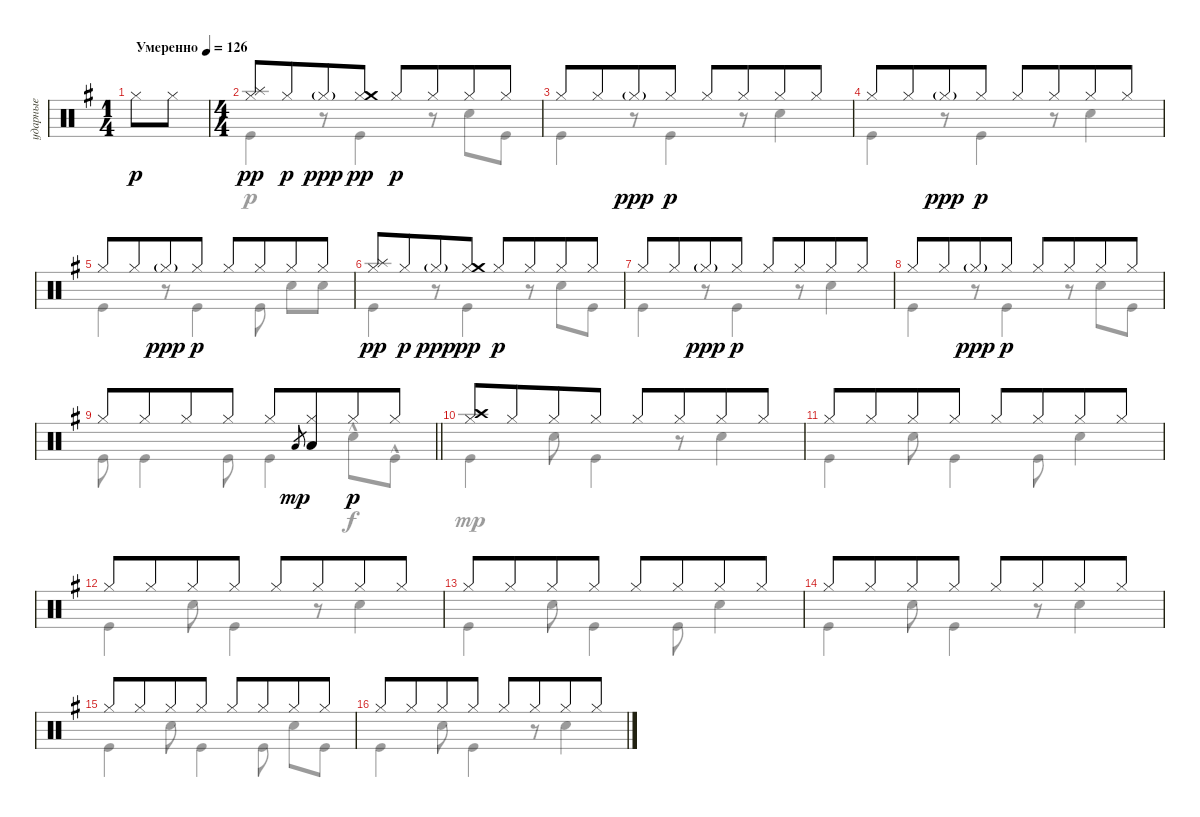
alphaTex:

\track ("ударные" "ударные") {instrument percussion}
\staff {score}
\articulation defaults
\voice
\ts (1 4)
\section ("" "")
\tempo (126 "Умеренно")
\clef neutral
\ks eminor "Hi-Hat (closed)".8{dy p} "Hi-Hat (closed)".8
|
\ts (4 4)
("Hi-Hat (closed)" "Splash (hit)").8{dy pp} "Hi-Hat (closed)".8{dy p beam merge} "Hi-Hat (closed)"{g}.8{dy ppp} ("Hi-Hat (closed)" "Crash medium (hit)").8{dy pp} "Hi-Hat (closed)".8{dy p} "Hi-Hat (closed)".8{beam merge} "Hi-Hat (closed)".8 "Hi-Hat (closed)".8 |
"Hi-Hat (closed)".8 "Hi-Hat (closed)".8{beam merge} "Hi-Hat (closed)"{g}.8{dy ppp} "Hi-Hat (closed)".8{dy p} "Hi-Hat (closed)".8 "Hi-Hat (closed)".8{beam merge} "Hi-Hat (closed)".8 "Hi-Hat (closed)".8 |
"Hi-Hat (closed)".8 "Hi-Hat (closed)".8{beam merge} "Hi-Hat (closed)"{g}.8{dy ppp} "Hi-Hat (closed)".8{dy p} "Hi-Hat (closed)".8 "Hi-Hat (closed)".8{beam merge} "Hi-Hat (closed)".8 "Hi-Hat (closed)".8 |
"Hi-Hat (closed)".8 "Hi-Hat (closed)".8{beam merge} "Hi-Hat (closed)"{g}.8{dy ppp} "Hi-Hat (closed)".8{dy p} "Hi-Hat (closed)".8 "Hi-Hat (closed)".8{beam merge} "Hi-Hat (closed)".8 "Hi-Hat (closed)".8 |
("Hi-Hat (closed)" "Splash (hit)").8{dy pp} "Hi-Hat (closed)".8{dy p beam merge} "Hi-Hat (closed)"{g}.8{dy ppp} ("Hi-Hat (closed)" "Crash medium (hit)").8{dy pp} "Hi-Hat (closed)".8{dy p} "Hi-Hat (closed)".8{beam merge} "Hi-Hat (closed)".8 "Hi-Hat (closed)".8 |
"Hi-Hat (closed)".8 "Hi-Hat (closed)".8{beam merge} "Hi-Hat (closed)"{g}.8{dy ppp} "Hi-Hat (closed)".8{dy p} "Hi-Hat (closed)".8 "Hi-Hat (closed)".8{beam merge} "Hi-Hat (closed)".8 "Hi-Hat (closed)".8 |
"Hi-Hat (closed)".8 "Hi-Hat (closed)".8{beam merge} "Hi-Hat (closed)"{g}.8{dy ppp} "Hi-Hat (closed)".8{dy p} "Hi-Hat (closed)".8 "Hi-Hat (closed)".8{beam merge} "Hi-Hat (closed)".8 "Hi-Hat (closed)".8 |
\barLineRight lightlight "Hi-Hat (closed)".8 "Hi-Hat (closed)".8{beam merge} "Hi-Hat (closed)".8 "Hi-Hat (closed)".8 "Hi-Hat (closed)".8 "Low Tom (hit)"{h}.8{gr dy mp}
("Hi-Hat (closed)" "Low Tom (hit)").8{beam merge} "Hi-Hat (closed)".8{dy p} "Hi-Hat (closed)".8 |
\section ("" "")
("Hi-Hat (closed)" "Crash high (hit)").8 "Hi-Hat (closed)".8{beam merge} "Hi-Hat (closed)".8 "Hi-Hat (closed)".8 "Hi-Hat (closed)".8 "Hi-Hat (closed)".8{beam merge} "Hi-Hat (closed)".8 "Hi-Hat (closed)".8 |
"Hi-Hat (closed)".8 "Hi-Hat (closed)".8{beam merge} "Hi-Hat (closed)".8 "Hi-Hat (closed)".8 "Hi-Hat (closed)".8 "Hi-Hat (closed)".8{beam merge} "Hi-Hat (closed)".8 "Hi-Hat (closed)".8 |
"Hi-Hat (closed)".8 "Hi-Hat (closed)".8{beam merge} "Hi-Hat (closed)".8 "Hi-Hat (closed)".8 "Hi-Hat (closed)".8 "Hi-Hat (closed)".8{beam merge} "Hi-Hat (closed)".8 "Hi-Hat (closed)".8 |
"Hi-Hat (closed)".8 "Hi-Hat (closed)".8{beam merge} "Hi-Hat (closed)".8 "Hi-Hat (closed)".8 "Hi-Hat (closed)".8 "Hi-Hat (closed)".8{beam merge} "Hi-Hat (closed)".8 "Hi-Hat (closed)".8 |
"Hi-Hat (closed)".8 "Hi-Hat (closed)".8{beam merge} "Hi-Hat (closed)".8 "Hi-Hat (closed)".8 "Hi-Hat (closed)".8 "Hi-Hat (closed)".8{beam merge} "Hi-Hat (closed)".8 "Hi-Hat (closed)".8 |
"Hi-Hat (closed)".8 "Hi-Hat (closed)".8{beam merge} "Hi-Hat (closed)".8 "Hi-Hat (closed)".8 "Hi-Hat (closed)".8 "Hi-Hat (closed)".8{beam merge} "Hi-Hat (closed)".8 "Hi-Hat (closed)".8 |
"Hi-Hat (closed)".8 "Hi-Hat (closed)".8{beam merge} "Hi-Hat (closed)".8 "Hi-Hat (closed)".8 "Hi-Hat (closed)".8 "Hi-Hat (closed)".8{beam merge} "Hi-Hat (closed)".8 "Hi-Hat (closed)".8
\voice
\clef neutral
\ottava regular
\simile none
\ks eminor
|
"Kick (hit)".4 r.8 "Kick (hit)".4 r.8 "Snare (hit) 2".8 "Kick (hit)".8 |
"Kick (hit)".4 r.8 "Kick (hit)".4 r.8 "Snare (hit) 2".4 |
"Kick (hit)".4 r.8 "Kick (hit)".4 r.8 "Snare (hit) 2".4 |
"Kick (hit)".4 r.8 "Kick (hit)".4 "Kick (hit)".8 "Snare (hit) 2".8 "Snare (hit) 2".8 |
"Kick (hit)".4 r.8 "Kick (hit)".4 r.8 "Snare (hit) 2".8 "Kick (hit)".8 |
"Kick (hit)".4 r.8 "Kick (hit)".4 r.8 "Snare (hit) 2".4 |
"Kick (hit)".4 r.8 "Kick (hit)".4 r.8 "Snare (hit) 2".8 "Kick (hit)".8 |
\barLineRight lightlight "Kick (hit)".8 "Kick (hit)".4 "Kick (hit)".8 "Kick (hit)".4 "Snare (hit) 2"{hac}.8{dy f} "Kick (hit)"{hac}.8
|
"Kick (hit)".4{dy mp} "Snare (hit) 2".8 "Kick (hit)".4 r.8 "Snare (hit) 2".4 |
"Kick (hit)".4 "Snare (hit) 2".8 "Kick (hit)".4 "Kick (hit)".8 "Snare (hit) 2".4 |
"Kick (hit)".4 "Snare (hit) 2".8 "Kick (hit)".4 r.8 "Snare (hit) 2".4 |
"Kick (hit)".4 "Snare (hit) 2".8 "Kick (hit)".4 "Kick (hit)".8 "Snare (hit) 2".4 |
"Kick (hit)".4 "Snare (hit) 2".8 "Kick (hit)".4 r.8 "Snare (hit) 2".4 |
"Kick (hit)".4 "Snare (hit) 2".8 "Kick (hit)".4 "Kick (hit)".8 "Snare (hit) 2".8 "Kick (hit)".8 |
"Kick (hit)".4 "Snare (hit) 2".8 "Kick (hit)".4 r.8 "Snare (hit) 2".4
